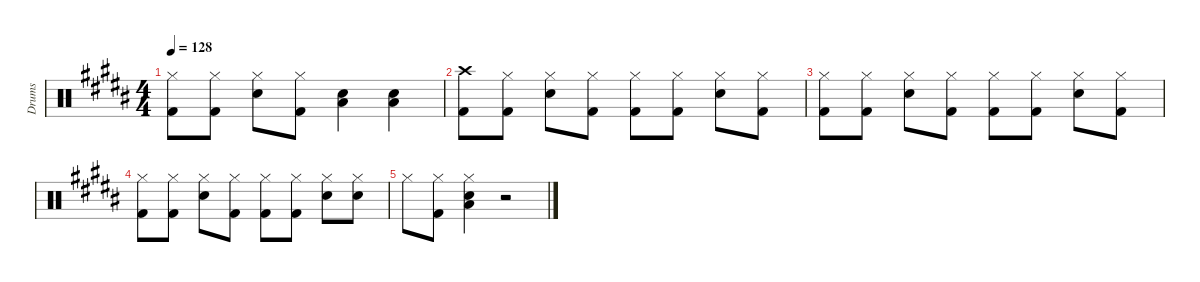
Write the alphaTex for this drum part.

\hideDynamics
\bracketExtendMode nobrackets
\otherSystemsTrackNameOrientation horizontal
\track ("Drumkit" "Drums") {instrument percussion}
\staff {score}
\articulation defaults
\ts (4 4)
\tempo 128
\clef neutral
\scale
0.333333
\ks b
("Kick (hit) 2"{acc bb} "Hi-Hat (closed)"{acc bb}).8{dy mf beam Down} ("Kick (hit) 2"{acc bb} "Hi-Hat (closed)"{acc bb}).8{beam Down} ("Snare (hit) 2"{acc bb} "Hi-Hat (closed)"{acc bb}).8{beam Down} ("Kick (hit) 2"{acc bb} "Hi-Hat (closed)"{acc bb}).8{beam Down} ("Snare (hit) 2"{acc bb} "Low Tom (hit)"{acc bb}).4{beam Down} ("Snare (hit) 2"{acc bb} "Low Tom (hit)"{acc bb}).4{beam Down} |
\scale
0.333333 ("Crash high (hit)"{acc bb} "Kick (hit) 2"{acc bb}).8{beam Down} ("Kick (hit) 2"{acc bb} "Hi-Hat (closed)"{acc bb}).8{beam Down} ("Snare (hit) 2"{acc bb} "Hi-Hat (closed)"{acc bb}).8{beam Down} ("Kick (hit) 2"{acc bb} "Hi-Hat (closed)"{acc bb}).8{beam Down} ("Kick (hit) 2"{acc bb} "Hi-Hat (closed)"{acc bb}).8{beam Down} ("Kick (hit) 2"{acc bb} "Hi-Hat (closed)"{acc bb}).8{beam Down} ("Snare (hit) 2"{acc bb} "Hi-Hat (closed)"{acc bb}).8{beam Down} ("Kick (hit) 2"{acc bb} "Hi-Hat (closed)"{acc bb}).8{beam Down} |
\scale
0.333333 ("Kick (hit) 2"{acc bb} "Hi-Hat (closed)"{acc bb}).8{beam Down} ("Kick (hit) 2"{acc bb} "Hi-Hat (closed)"{acc bb}).8{beam Down} ("Snare (hit) 2"{acc bb} "Hi-Hat (closed)"{acc bb}).8{beam Down} ("Kick (hit) 2"{acc bb} "Hi-Hat (closed)"{acc bb}).8{beam Down} ("Kick (hit) 2"{acc bb} "Hi-Hat (closed)"{acc bb}).8{beam Down} ("Kick (hit) 2"{acc bb} "Hi-Hat (closed)"{acc bb}).8{beam Down} ("Snare (hit) 2"{acc bb} "Hi-Hat (closed)"{acc bb}).8{beam Down} ("Kick (hit) 2"{acc bb} "Hi-Hat (closed)"{acc bb}).8{beam Down} |
\scale
0.333333 ("Kick (hit) 2"{acc bb} "Hi-Hat (closed)"{acc bb}).8{beam Down} ("Kick (hit) 2"{acc bb} "Hi-Hat (closed)"{acc bb}).8{beam Down} ("Snare (hit) 2"{acc bb} "Hi-Hat (closed)"{acc bb}).8{beam Down} ("Kick (hit) 2"{acc bb} "Hi-Hat (closed)"{acc bb}).8{beam Down} ("Kick (hit) 2"{acc bb} "Hi-Hat (closed)"{acc bb}).8{beam Down} ("Kick (hit) 2"{acc bb} "Hi-Hat (closed)"{acc bb}).8{beam Down} ("Snare (hit) 2"{acc bb} "Hi-Hat (closed)"{acc bb}).8{beam Down} ("Hi-Hat (closed)"{acc bb} "Snare (hit) 2"{acc bb}).8{beam Down} |
"Hi-Hat (closed)"{acc bb}.8{beam Down} ("Kick (hit) 2"{acc bb} "Hi-Hat (closed)"{acc bb}).8{beam Down} ("Snare (hit) 2"{acc bb} "Hi-Hat (closed)"{acc bb} "Low Tom (hit)"{acc bb}).4{beam Down} r.2{beam Down}
